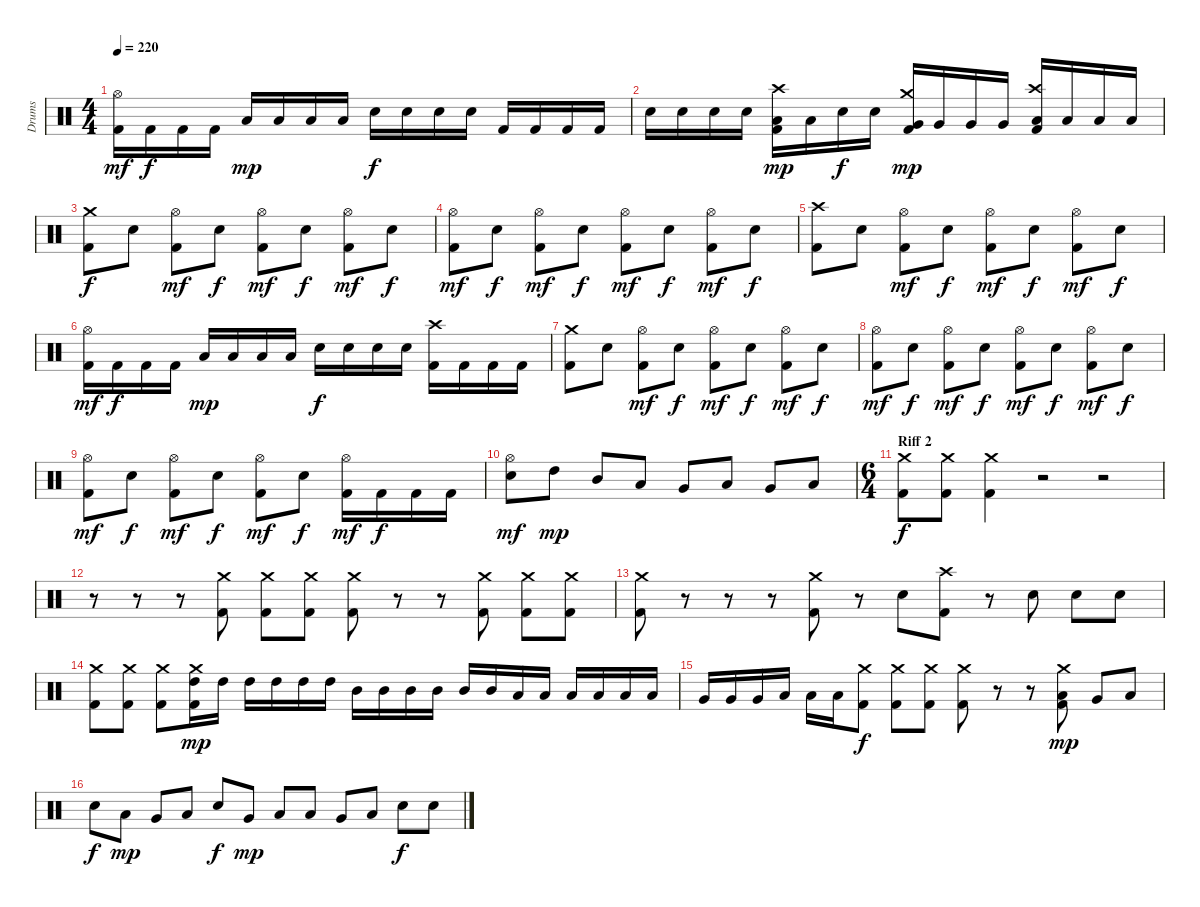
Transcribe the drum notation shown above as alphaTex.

\track ("Drums" "Drums") {instrument percussion}
\staff {score}
\articulation defaults
\ts (4 4)
\tempo 220
\clef neutral
\ks c
("Hi-Hat (open)" "Kick (hit) 2").16{dy mf} "Kick (hit) 2".16{dy f} "Kick (hit) 2".16 "Kick (hit) 2".16 "Low Tom (hit)".16{dy mp} "Low Tom (hit)".16 "Low Tom (hit)".16 "Low Tom (hit)".16 "Electric Snare (hit)".16{dy f} "Electric Snare (hit)".16 "Electric Snare (hit)".16 "Electric Snare (hit)".16 "Kick (hit) 2".16 "Kick (hit) 2".16 "Kick (hit) 2".16 "Kick (hit) 2".16 |
"Electric Snare (hit)".16 "Electric Snare (hit)".16 "Electric Snare (hit)".16 "Electric Snare (hit)".16 ("Crash high (hit)" "Low Tom (hit)" "Kick (hit) 2").16{dy mp} "Low Tom (hit)".16 "Electric Snare (hit)".16{dy f} "Electric Snare (hit)".16 ("Crash medium (hit)" "Very Low Tom (hit)" "Kick (hit) 2").16{dy mp} "Very Low Tom (hit)".16 "Very Low Tom (hit)".16 "Very Low Tom (hit)".16 ("Crash high (hit)" "Low Floor Tom (hit)" "Kick (hit) 2").16 "Low Floor Tom (hit)".16 "Low Floor Tom (hit)".16 "Low Floor Tom (hit)".16 |
("Crash medium (hit)" "Kick (hit) 2").8{dy f} "Electric Snare (hit)".8 ("Hi-Hat (open)" "Kick (hit) 2").8{dy mf} "Electric Snare (hit)".8{dy f} ("Hi-Hat (open)" "Kick (hit) 2").8{dy mf} "Electric Snare (hit)".8{dy f} ("Hi-Hat (open)" "Kick (hit) 2").8{dy mf} "Electric Snare (hit)".8{dy f} |
("Hi-Hat (open)" "Kick (hit) 2").8{dy mf} "Electric Snare (hit)".8{dy f} ("Hi-Hat (open)" "Kick (hit) 2").8{dy mf} "Electric Snare (hit)".8{dy f} ("Hi-Hat (open)" "Kick (hit) 2").8{dy mf} "Electric Snare (hit)".8{dy f} ("Hi-Hat (open)" "Kick (hit) 2").8{dy mf} "Electric Snare (hit)".8{dy f} |
("Crash high (hit)" "Kick (hit) 2").8 "Electric Snare (hit)".8 ("Hi-Hat (open)" "Kick (hit) 2").8{dy mf} "Electric Snare (hit)".8{dy f} ("Hi-Hat (open)" "Kick (hit) 2").8{dy mf} "Electric Snare (hit)".8{dy f} ("Hi-Hat (open)" "Kick (hit) 2").8{dy mf} "Electric Snare (hit)".8{dy f} |
("Hi-Hat (open)" "Kick (hit) 2").16{dy mf} "Kick (hit) 2".16{dy f} "Kick (hit) 2".16 "Kick (hit) 2".16 "Low Tom (hit)".16{dy mp} "Low Tom (hit)".16 "Low Tom (hit)".16 "Low Tom (hit)".16 "Electric Snare (hit)".16{dy f} "Electric Snare (hit)".16 "Electric Snare (hit)".16 "Electric Snare (hit)".16 ("Crash high (hit)" "Kick (hit) 2").16 "Kick (hit) 2".16 "Kick (hit) 2".16 "Kick (hit) 2".16 |
("Crash medium (hit)" "Kick (hit) 2").8 "Electric Snare (hit)".8 ("Hi-Hat (open)" "Kick (hit) 2").8{dy mf} "Electric Snare (hit)".8{dy f} ("Hi-Hat (open)" "Kick (hit) 2").8{dy mf} "Electric Snare (hit)".8{dy f} ("Hi-Hat (open)" "Kick (hit) 2").8{dy mf} "Electric Snare (hit)".8{dy f} |
("Hi-Hat (open)" "Kick (hit) 2").8{dy mf} "Electric Snare (hit)".8{dy f} ("Hi-Hat (open)" "Kick (hit) 2").8{dy mf} "Electric Snare (hit)".8{dy f} ("Hi-Hat (open)" "Kick (hit) 2").8{dy mf} "Electric Snare (hit)".8{dy f} ("Hi-Hat (open)" "Kick (hit) 2").8{dy mf} "Electric Snare (hit)".8{dy f} |
("Hi-Hat (open)" "Kick (hit) 2").8{dy mf} "Electric Snare (hit)".8{dy f} ("Hi-Hat (open)" "Kick (hit) 2").8{dy mf} "Electric Snare (hit)".8{dy f} ("Hi-Hat (open)" "Kick (hit) 2").8{dy mf} "Electric Snare (hit)".8{dy f} ("Hi-Hat (open)" "Kick (hit) 2").16{dy mf} "Kick (hit) 2".16{dy f} "Kick (hit) 2".16 "Kick (hit) 2".16 |
("Hi-Hat (open)" "Electric Snare (hit)").8{dy mf} "High Tom (hit)".8{dy mp} "Mid Tom (hit)".8 "Low Tom (hit)".8 "Very Low Tom (hit)".8 "Low Tom (hit)".8 "Very Low Tom (hit)".8 "Low Floor Tom (hit)".8 |
\ts (6 4)
\section ("" "Riff 2")
("Crash medium (hit)" "Kick (hit) 2").8{dy f} ("Crash medium (hit)" "Kick (hit) 2").8 ("Crash medium (hit)" "Kick (hit) 2").4 r.2 r.2 |
r.8 r.8 r.8 ("Crash medium (hit)" "Kick (hit) 2").8 ("Crash medium (hit)" "Kick (hit) 2").8 ("Crash medium (hit)" "Kick (hit) 2").8 ("Crash medium (hit)" "Kick (hit) 2").8 r.8 r.8 ("Crash medium (hit)" "Kick (hit) 2").8 ("Crash medium (hit)" "Kick (hit) 2").8 ("Crash medium (hit)" "Kick (hit) 2").8 |
("Crash medium (hit)" "Kick (hit) 2").8 r.8 r.8 r.8 ("Crash medium (hit)" "Kick (hit) 2").8 r.8 "Electric Snare (hit)".8 ("Crash high (hit)" "Kick (hit) 2").8 r.8 "Electric Snare (hit)".8 "Electric Snare (hit)".8 "Electric Snare (hit)".8 |
("Crash medium (hit)" "Kick (hit) 2").8 ("Crash medium (hit)" "Kick (hit) 2").8 ("Crash medium (hit)" "Kick (hit) 2").8 ("Crash medium (hit)" "High Tom (hit)" "Kick (hit) 2").16{dy mp} "High Tom (hit)".16 "High Tom (hit)".16 "High Tom (hit)".16 "High Tom (hit)".16 "High Tom (hit)".16 "Mid Tom (hit)".16 "Mid Tom (hit)".16 "Mid Tom (hit)".16 "Mid Tom (hit)".16 "Mid Tom (hit)".16 "Mid Tom (hit)".16 "Low Tom (hit)".16 "Low Tom (hit)".16 "Low Tom (hit)".16 "Low Tom (hit)".16 "Low Tom (hit)".16 "Low Tom (hit)".16 |
"Very Low Tom (hit)".16 "Very Low Tom (hit)".16 "Very Low Tom (hit)".16 "Low Floor Tom (hit)".16 "Low Floor Tom (hit)".16 "Low Floor Tom (hit)".16 ("Crash medium (hit)" "Kick (hit) 2").8{dy f} ("Crash medium (hit)" "Kick (hit) 2").8 ("Crash medium (hit)" "Kick (hit) 2").8 ("Crash medium (hit)" "Kick (hit) 2").8 r.8 r.8 ("Crash medium (hit)" "Low Tom (hit)" "Kick (hit) 2").8{dy mp} "Very Low Tom (hit)".8 "Low Floor Tom (hit)".8 |
"Electric Snare (hit)".8{dy f} "Low Tom (hit)".8{dy mp} "Very Low Tom (hit)".8 "Low Floor Tom (hit)".8 "Electric Snare (hit)".8{dy f} "Very Low Tom (hit)".8{dy mp} "Low Tom (hit)".8 "Low Tom (hit)".8 "Very Low Tom (hit)".8 "Low Floor Tom (hit)".8 "Electric Snare (hit)".8{dy f} "Electric Snare (hit)".8
